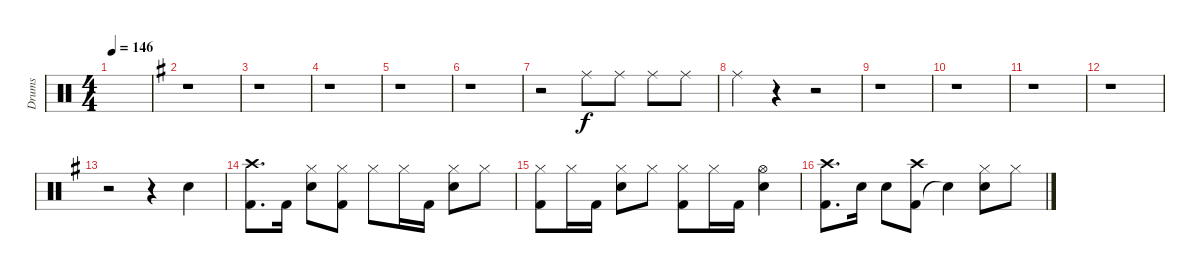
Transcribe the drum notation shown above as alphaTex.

\track ("Drums" "Drums") {instrument percussion}
\staff {score}
\articulation defaults
\ts (4 4)
\tempo 146
\clef neutral
\ks c
|
\ks g
r.1 |
r.1 |
r.1 |
r.1 |
r.1 |
r.2 "Ride (middle)".8 "Ride (middle)".8 "Ride (middle)".8 "Ride (middle)".8 |
"Ride (middle)".4 r.4 r.2 |
r.1 |
r.1 |
r.1 |
r.1 |
r.2 r.4 "Snare (hit) 2".4 |
("Kick (hit) 2" "Crash high (hit)").8{d} "Kick (hit) 2".16 ("Snare (hit) 2" "Hi-Hat (closed)").8 ("Kick (hit) 2" "Hi-Hat (closed)").8 "Hi-Hat (closed)".8 "Hi-Hat (closed)".16 "Kick (hit) 2".16 ("Snare (hit) 2" "Hi-Hat (closed)").8 "Hi-Hat (closed)".8 |
("Kick (hit) 2" "Hi-Hat (closed)").8 "Hi-Hat (closed)".16 "Kick (hit) 2".16 ("Snare (hit) 2" "Hi-Hat (closed)").8 "Hi-Hat (closed)".8 ("Kick (hit) 2" "Hi-Hat (closed)").8 "Hi-Hat (closed)".16 "Kick (hit) 2".16 ("Snare (hit) 2" "Hi-Hat (open)").4 |
("Kick (hit) 2" "Crash high (hit)").8{d} "Snare (hit) 2".16 "Snare (hit) 2".8 ("Kick (hit) 2" "Crash high (hit)").8 "Snare (hit)"{t}.4 ("Snare (hit) 2" "Hi-Hat (closed)").8 "Hi-Hat (closed)".8
